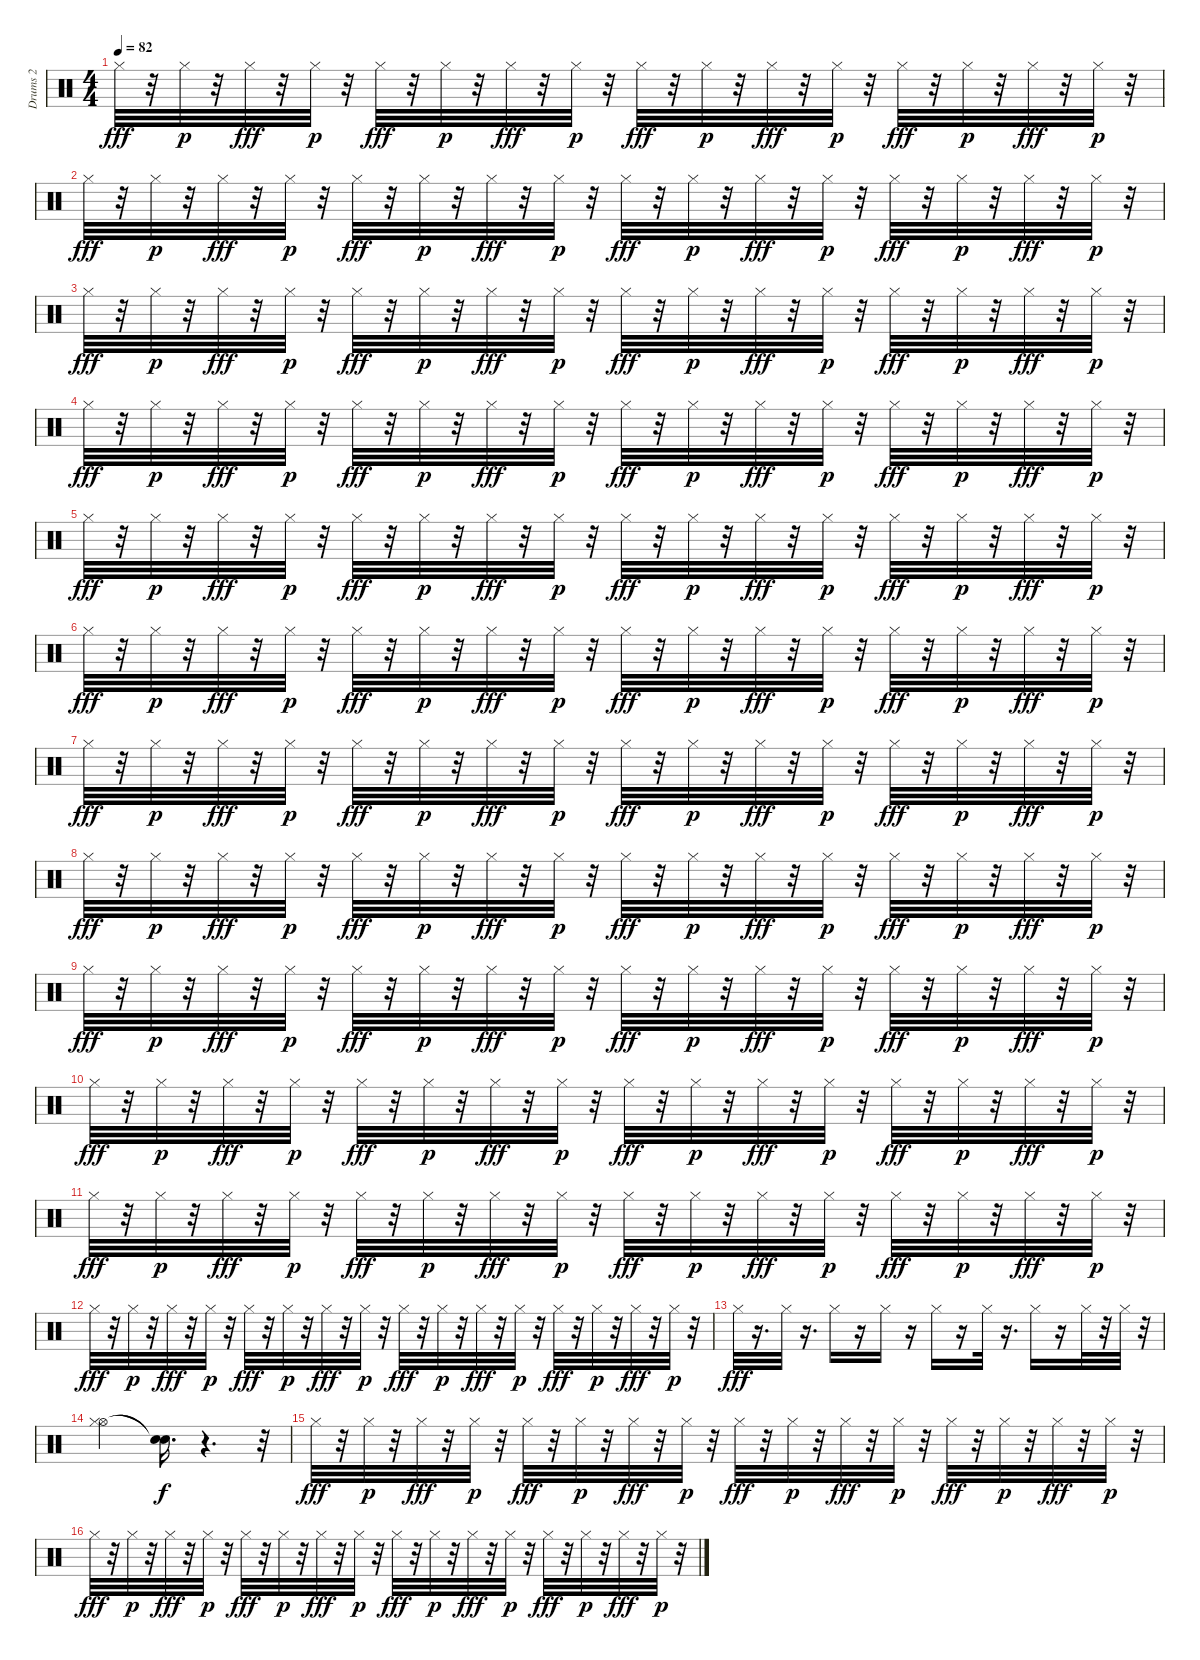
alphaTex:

\track ("Drums 2" "Drums 2") {instrument percussion}
\staff {score}
\articulation defaults
\ts (4 4)
\tempo 82
\clef neutral
\ks c "Hi-Hat (closed)".32{dy fff}
r.32 "Hi-Hat (closed)".32{dy p} r.32 "Hi-Hat (closed)".32{dy fff} r.32 "Hi-Hat (closed)".32{dy p} r.32 "Hi-Hat (closed)".32{dy fff} r.32 "Hi-Hat (closed)".32{dy p} r.32 "Hi-Hat (closed)".32{dy fff} r.32 "Hi-Hat (closed)".32{dy p} r.32 "Hi-Hat (closed)".32{dy fff} r.32 "Hi-Hat (closed)".32{dy p} r.32 "Hi-Hat (closed)".32{dy fff} r.32 "Hi-Hat (closed)".32{dy p} r.32 "Hi-Hat (closed)".32{dy fff} r.32 "Hi-Hat (closed)".32{dy p} r.32 "Hi-Hat (closed)".32{dy fff} r.32 "Hi-Hat (closed)".32{dy p} r.32 |
"Hi-Hat (closed)".32{dy fff} r.32 "Hi-Hat (closed)".32{dy p} r.32 "Hi-Hat (closed)".32{dy fff} r.32 "Hi-Hat (closed)".32{dy p} r.32 "Hi-Hat (closed)".32{dy fff} r.32 "Hi-Hat (closed)".32{dy p} r.32 "Hi-Hat (closed)".32{dy fff} r.32 "Hi-Hat (closed)".32{dy p} r.32 "Hi-Hat (closed)".32{dy fff} r.32 "Hi-Hat (closed)".32{dy p} r.32 "Hi-Hat (closed)".32{dy fff} r.32 "Hi-Hat (closed)".32{dy p} r.32 "Hi-Hat (closed)".32{dy fff} r.32 "Hi-Hat (closed)".32{dy p} r.32 "Hi-Hat (closed)".32{dy fff} r.32 "Hi-Hat (closed)".32{dy p} r.32 |
"Hi-Hat (closed)".32{dy fff} r.32 "Hi-Hat (closed)".32{dy p} r.32 "Hi-Hat (closed)".32{dy fff} r.32 "Hi-Hat (closed)".32{dy p} r.32 "Hi-Hat (closed)".32{dy fff} r.32 "Hi-Hat (closed)".32{dy p} r.32 "Hi-Hat (closed)".32{dy fff} r.32 "Hi-Hat (closed)".32{dy p} r.32 "Hi-Hat (closed)".32{dy fff} r.32 "Hi-Hat (closed)".32{dy p} r.32 "Hi-Hat (closed)".32{dy fff} r.32 "Hi-Hat (closed)".32{dy p} r.32 "Hi-Hat (closed)".32{dy fff} r.32 "Hi-Hat (closed)".32{dy p} r.32 "Hi-Hat (closed)".32{dy fff} r.32 "Hi-Hat (closed)".32{dy p} r.32 |
"Hi-Hat (closed)".32{dy fff} r.32 "Hi-Hat (closed)".32{dy p} r.32 "Hi-Hat (closed)".32{dy fff} r.32 "Hi-Hat (closed)".32{dy p} r.32 "Hi-Hat (closed)".32{dy fff} r.32 "Hi-Hat (closed)".32{dy p} r.32 "Hi-Hat (closed)".32{dy fff} r.32 "Hi-Hat (closed)".32{dy p} r.32 "Hi-Hat (closed)".32{dy fff} r.32 "Hi-Hat (closed)".32{dy p} r.32 "Hi-Hat (closed)".32{dy fff} r.32 "Hi-Hat (closed)".32{dy p} r.32 "Hi-Hat (closed)".32{dy fff} r.32 "Hi-Hat (closed)".32{dy p} r.32 "Hi-Hat (closed)".32{dy fff} r.32 "Hi-Hat (closed)".32{dy p} r.32 |
"Hi-Hat (closed)".32{dy fff} r.32 "Hi-Hat (closed)".32{dy p} r.32 "Hi-Hat (closed)".32{dy fff} r.32 "Hi-Hat (closed)".32{dy p} r.32 "Hi-Hat (closed)".32{dy fff} r.32 "Hi-Hat (closed)".32{dy p} r.32 "Hi-Hat (closed)".32{dy fff} r.32 "Hi-Hat (closed)".32{dy p} r.32 "Hi-Hat (closed)".32{dy fff} r.32 "Hi-Hat (closed)".32{dy p} r.32 "Hi-Hat (closed)".32{dy fff} r.32 "Hi-Hat (closed)".32{dy p} r.32 "Hi-Hat (closed)".32{dy fff} r.32 "Hi-Hat (closed)".32{dy p} r.32 "Hi-Hat (closed)".32{dy fff} r.32 "Hi-Hat (closed)".32{dy p} r.32 |
"Hi-Hat (closed)".32{dy fff} r.32 "Hi-Hat (closed)".32{dy p} r.32 "Hi-Hat (closed)".32{dy fff} r.32 "Hi-Hat (closed)".32{dy p} r.32 "Hi-Hat (closed)".32{dy fff} r.32 "Hi-Hat (closed)".32{dy p} r.32 "Hi-Hat (closed)".32{dy fff} r.32 "Hi-Hat (closed)".32{dy p} r.32 "Hi-Hat (closed)".32{dy fff} r.32 "Hi-Hat (closed)".32{dy p} r.32 "Hi-Hat (closed)".32{dy fff} r.32 "Hi-Hat (closed)".32{dy p} r.32 "Hi-Hat (closed)".32{dy fff} r.32 "Hi-Hat (closed)".32{dy p} r.32 "Hi-Hat (closed)".32{dy fff} r.32 "Hi-Hat (closed)".32{dy p} r.32 |
"Hi-Hat (closed)".32{dy fff} r.32 "Hi-Hat (closed)".32{dy p} r.32 "Hi-Hat (closed)".32{dy fff} r.32 "Hi-Hat (closed)".32{dy p} r.32 "Hi-Hat (closed)".32{dy fff} r.32 "Hi-Hat (closed)".32{dy p} r.32 "Hi-Hat (closed)".32{dy fff} r.32 "Hi-Hat (closed)".32{dy p} r.32 "Hi-Hat (closed)".32{dy fff} r.32 "Hi-Hat (closed)".32{dy p} r.32 "Hi-Hat (closed)".32{dy fff} r.32 "Hi-Hat (closed)".32{dy p} r.32 "Hi-Hat (closed)".32{dy fff} r.32 "Hi-Hat (closed)".32{dy p} r.32 "Hi-Hat (closed)".32{dy fff} r.32 "Hi-Hat (closed)".32{dy p} r.32 |
"Hi-Hat (closed)".32{dy fff} r.32 "Hi-Hat (closed)".32{dy p} r.32 "Hi-Hat (closed)".32{dy fff} r.32 "Hi-Hat (closed)".32{dy p} r.32 "Hi-Hat (closed)".32{dy fff} r.32 "Hi-Hat (closed)".32{dy p} r.32 "Hi-Hat (closed)".32{dy fff} r.32 "Hi-Hat (closed)".32{dy p} r.32 "Hi-Hat (closed)".32{dy fff} r.32 "Hi-Hat (closed)".32{dy p} r.32 "Hi-Hat (closed)".32{dy fff} r.32 "Hi-Hat (closed)".32{dy p} r.32 "Hi-Hat (closed)".32{dy fff} r.32 "Hi-Hat (closed)".32{dy p} r.32 "Hi-Hat (closed)".32{dy fff} r.32 "Hi-Hat (closed)".32{dy p} r.32 |
"Hi-Hat (closed)".32{dy fff} r.32 "Hi-Hat (closed)".32{dy p} r.32 "Hi-Hat (closed)".32{dy fff} r.32 "Hi-Hat (closed)".32{dy p} r.32 "Hi-Hat (closed)".32{dy fff} r.32 "Hi-Hat (closed)".32{dy p} r.32 "Hi-Hat (closed)".32{dy fff} r.32 "Hi-Hat (closed)".32{dy p} r.32 "Hi-Hat (closed)".32{dy fff} r.32 "Hi-Hat (closed)".32{dy p} r.32 "Hi-Hat (closed)".32{dy fff} r.32 "Hi-Hat (closed)".32{dy p} r.32 "Hi-Hat (closed)".32{dy fff} r.32 "Hi-Hat (closed)".32{dy p} r.32 "Hi-Hat (closed)".32{dy fff} r.32 "Hi-Hat (closed)".32{dy p} r.32 |
"Hi-Hat (closed)".32{dy fff} r.32 "Hi-Hat (closed)".32{dy p} r.32 "Hi-Hat (closed)".32{dy fff} r.32 "Hi-Hat (closed)".32{dy p} r.32 "Hi-Hat (closed)".32{dy fff} r.32 "Hi-Hat (closed)".32{dy p} r.32 "Hi-Hat (closed)".32{dy fff} r.32 "Hi-Hat (closed)".32{dy p} r.32 "Hi-Hat (closed)".32{dy fff} r.32 "Hi-Hat (closed)".32{dy p} r.32 "Hi-Hat (closed)".32{dy fff} r.32 "Hi-Hat (closed)".32{dy p} r.32 "Hi-Hat (closed)".32{dy fff} r.32 "Hi-Hat (closed)".32{dy p} r.32 "Hi-Hat (closed)".32{dy fff} r.32 "Hi-Hat (closed)".32{dy p} r.32 |
"Hi-Hat (closed)".32{dy fff} r.32 "Hi-Hat (closed)".32{dy p} r.32 "Hi-Hat (closed)".32{dy fff} r.32 "Hi-Hat (closed)".32{dy p} r.32 "Hi-Hat (closed)".32{dy fff} r.32 "Hi-Hat (closed)".32{dy p} r.32 "Hi-Hat (closed)".32{dy fff} r.32 "Hi-Hat (closed)".32{dy p} r.32 "Hi-Hat (closed)".32{dy fff} r.32 "Hi-Hat (closed)".32{dy p} r.32 "Hi-Hat (closed)".32{dy fff} r.32 "Hi-Hat (closed)".32{dy p} r.32 "Hi-Hat (closed)".32{dy fff} r.32 "Hi-Hat (closed)".32{dy p} r.32 "Hi-Hat (closed)".32{dy fff} r.32 "Hi-Hat (closed)".32{dy p} r.32 |
"Hi-Hat (closed)".32{dy fff} r.32 "Hi-Hat (closed)".32{dy p} r.32 "Hi-Hat (closed)".32{dy fff} r.32 "Hi-Hat (closed)".32{dy p} r.32 "Hi-Hat (closed)".32{dy fff} r.32 "Hi-Hat (closed)".32{dy p} r.32 "Hi-Hat (closed)".32{dy fff} r.32 "Hi-Hat (closed)".32{dy p} r.32 "Hi-Hat (closed)".32{dy fff} r.32 "Hi-Hat (closed)".32{dy p} r.32 "Hi-Hat (closed)".32{dy fff} r.32 "Hi-Hat (closed)".32{dy p} r.32 "Hi-Hat (closed)".32{dy fff} r.32 "Hi-Hat (closed)".32{dy p} r.32 "Hi-Hat (closed)".32{dy fff} r.32 "Hi-Hat (closed)".32{dy p} r.32 |
"Hi-Hat (closed)".32{dy fff} r.16{d} "Hi-Hat (closed)".32 r.16{d} "Hi-Hat (closed)".16 r.16 "Hi-Hat (closed)".16 r.16 "Hi-Hat (closed)".16 r.16 "Hi-Hat (closed)".32 r.16{d} "Hi-Hat (closed)".16 r.16 "Hi-Hat (closed)".32 r.32 "Hi-Hat (closed)".32 r.32 |
("Hi-Hat (open)" "Hi-Hat (closed)").2 ("Snare (hit)"{t} "Snare (hit)"{t}).16{d dy f} r.4{d} r.32 |
"Hi-Hat (closed)".32{dy fff} r.32 "Hi-Hat (closed)".32{dy p} r.32 "Hi-Hat (closed)".32{dy fff} r.32 "Hi-Hat (closed)".32{dy p} r.32 "Hi-Hat (closed)".32{dy fff} r.32 "Hi-Hat (closed)".32{dy p} r.32 "Hi-Hat (closed)".32{dy fff} r.32 "Hi-Hat (closed)".32{dy p} r.32 "Hi-Hat (closed)".32{dy fff} r.32 "Hi-Hat (closed)".32{dy p} r.32 "Hi-Hat (closed)".32{dy fff} r.32 "Hi-Hat (closed)".32{dy p} r.32 "Hi-Hat (closed)".32{dy fff} r.32 "Hi-Hat (closed)".32{dy p} r.32 "Hi-Hat (closed)".32{dy fff} r.32 "Hi-Hat (closed)".32{dy p} r.32 |
"Hi-Hat (closed)".32{dy fff} r.32 "Hi-Hat (closed)".32{dy p} r.32 "Hi-Hat (closed)".32{dy fff} r.32 "Hi-Hat (closed)".32{dy p} r.32 "Hi-Hat (closed)".32{dy fff} r.32 "Hi-Hat (closed)".32{dy p} r.32 "Hi-Hat (closed)".32{dy fff} r.32 "Hi-Hat (closed)".32{dy p} r.32 "Hi-Hat (closed)".32{dy fff} r.32 "Hi-Hat (closed)".32{dy p} r.32 "Hi-Hat (closed)".32{dy fff} r.32 "Hi-Hat (closed)".32{dy p} r.32 "Hi-Hat (closed)".32{dy fff} r.32 "Hi-Hat (closed)".32{dy p} r.32 "Hi-Hat (closed)".32{dy fff} r.32 "Hi-Hat (closed)".32{dy p} r.32
